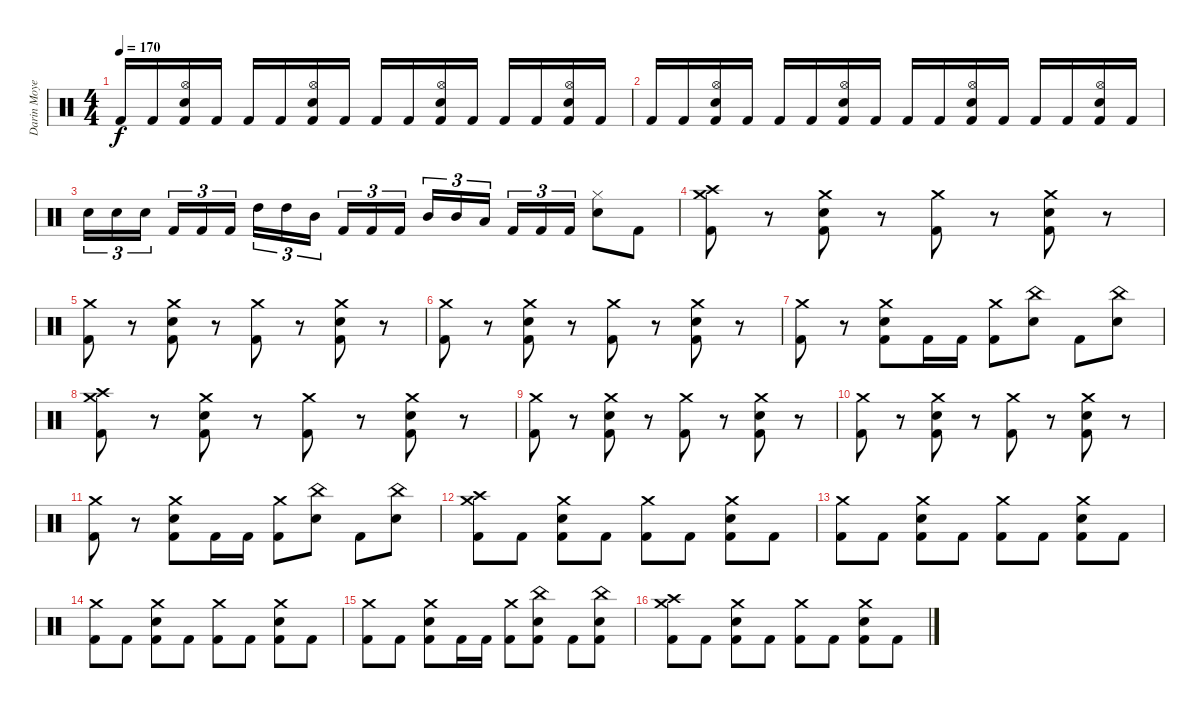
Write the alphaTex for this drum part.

\track ("Darin Moyen" "Darin Moye") {instrument percussion}
\staff {score}
\articulation defaults
\ts (4 4)
\tempo 170
\clef neutral
\ks c "Kick (hit) 2".16{dy f} "Kick (hit) 2".16
("Hi-Hat (open)" "Electric Snare (hit)" "Kick (hit) 2").16 "Kick (hit) 2".16 "Kick (hit) 2".16 "Kick (hit) 2".16 ("Hi-Hat (open)" "Electric Snare (hit)" "Kick (hit) 2").16 "Kick (hit) 2".16 "Kick (hit) 2".16 "Kick (hit) 2".16 ("Hi-Hat (open)" "Electric Snare (hit)" "Kick (hit) 2").16 "Kick (hit) 2".16 "Kick (hit) 2".16 "Kick (hit) 2".16 ("Hi-Hat (open)" "Electric Snare (hit)" "Kick (hit) 2").16 "Kick (hit) 2".16 |
"Kick (hit) 2".16 "Kick (hit) 2".16 ("Hi-Hat (open)" "Electric Snare (hit)" "Kick (hit) 2").16 "Kick (hit) 2".16 "Kick (hit) 2".16 "Kick (hit) 2".16 ("Hi-Hat (open)" "Electric Snare (hit)" "Kick (hit) 2").16 "Kick (hit) 2".16 "Kick (hit) 2".16 "Kick (hit) 2".16 ("Hi-Hat (open)" "Electric Snare (hit)" "Kick (hit) 2").16 "Kick (hit) 2".16 "Kick (hit) 2".16 "Kick (hit) 2".16 ("Hi-Hat (open)" "Electric Snare (hit)" "Kick (hit) 2").16 "Kick (hit) 2".16 |
"Electric Snare (hit)".16{tu (3 2)} "Electric Snare (hit)".16{tu (3 2)} "Electric Snare (hit)".16{tu (3 2) beam splitsecondary} "Kick (hit) 2".16{tu (3 2)} "Kick (hit) 2".16{tu (3 2)} "Kick (hit) 2".16{tu (3 2)} "High Tom (hit)".16{tu (3 2)} "High Tom (hit)".16{tu (3 2)} "Mid Tom (hit)".16{tu (3 2) beam splitsecondary} "Kick (hit) 2".16{tu (3 2)} "Kick (hit) 2".16{tu (3 2)} "Kick (hit) 2".16{tu (3 2)} "Mid Tom (hit)".16{tu (3 2)} "Mid Tom (hit)".16{tu (3 2)} "Low Tom (hit)".16{tu (3 2) beam splitsecondary} "Kick (hit) 2".16{tu (3 2)} "Kick (hit) 2".16{tu (3 2)} "Kick (hit) 2".16{tu (3 2)} ("Hi-Hat (closed)" "Electric Snare (hit)").8 "Kick (hit) 2".8 |
("Crash high (hit)" "Crash medium (hit)" "Kick (hit) 2").8 r.8 ("Crash medium (hit)" "Electric Snare (hit)" "Kick (hit) 2").8 r.8 ("Crash medium (hit)" "Kick (hit) 2").8 r.8 ("Crash medium (hit)" "Electric Snare (hit)" "Kick (hit) 2").8 r.8 |
("Crash medium (hit)" "Kick (hit) 2").8 r.8 ("Crash medium (hit)" "Electric Snare (hit)" "Kick (hit) 2").8 r.8 ("Crash medium (hit)" "Kick (hit) 2").8 r.8 ("Crash medium (hit)" "Electric Snare (hit)" "Kick (hit) 2").8 r.8 |
("Crash medium (hit)" "Kick (hit) 2").8 r.8 ("Crash medium (hit)" "Electric Snare (hit)" "Kick (hit) 2").8 r.8 ("Crash medium (hit)" "Kick (hit) 2").8 r.8 ("Crash medium (hit)" "Electric Snare (hit)" "Kick (hit) 2").8 r.8 |
("Crash medium (hit)" "Kick (hit) 2").8 r.8 ("Crash medium (hit)" "Electric Snare (hit)" "Kick (hit) 2").8 "Kick (hit) 2".16 "Kick (hit) 2".16 ("Crash medium (hit)" "Kick (hit) 2").8 ("China (hit)" "Electric Snare (hit)").8 "Kick (hit) 2".8 ("China (hit)" "Electric Snare (hit)").8 |
("Crash high (hit)" "Crash medium (hit)" "Kick (hit) 2").8 r.8 ("Crash medium (hit)" "Electric Snare (hit)" "Kick (hit) 2").8 r.8 ("Crash medium (hit)" "Kick (hit) 2").8 r.8 ("Crash medium (hit)" "Electric Snare (hit)" "Kick (hit) 2").8 r.8 |
("Crash medium (hit)" "Kick (hit) 2").8 r.8 ("Crash medium (hit)" "Electric Snare (hit)" "Kick (hit) 2").8 r.8 ("Crash medium (hit)" "Kick (hit) 2").8 r.8 ("Crash medium (hit)" "Electric Snare (hit)" "Kick (hit) 2").8 r.8 |
("Crash medium (hit)" "Kick (hit) 2").8 r.8 ("Crash medium (hit)" "Electric Snare (hit)" "Kick (hit) 2").8 r.8 ("Crash medium (hit)" "Kick (hit) 2").8 r.8 ("Crash medium (hit)" "Electric Snare (hit)" "Kick (hit) 2").8 r.8 |
("Crash medium (hit)" "Kick (hit) 2").8 r.8 ("Crash medium (hit)" "Electric Snare (hit)" "Kick (hit) 2").8 "Kick (hit) 2".16 "Kick (hit) 2".16 ("Crash medium (hit)" "Kick (hit) 2").8 ("China (hit)" "Electric Snare (hit)").8 "Kick (hit) 2".8 ("China (hit)" "Electric Snare (hit)").8 |
("Crash high (hit)" "Crash medium (hit)" "Kick (hit) 2").8 "Kick (hit) 2".8 ("Crash medium (hit)" "Electric Snare (hit)" "Kick (hit) 2").8 "Kick (hit) 2".8 ("Crash medium (hit)" "Kick (hit) 2").8 "Kick (hit) 2".8 ("Crash medium (hit)" "Electric Snare (hit)" "Kick (hit) 2").8 "Kick (hit) 2".8 |
("Crash medium (hit)" "Kick (hit) 2").8 "Kick (hit) 2".8 ("Crash medium (hit)" "Electric Snare (hit)" "Kick (hit) 2").8 "Kick (hit) 2".8 ("Crash medium (hit)" "Kick (hit) 2").8 "Kick (hit) 2".8 ("Crash medium (hit)" "Electric Snare (hit)" "Kick (hit) 2").8 "Kick (hit) 2".8 |
("Crash medium (hit)" "Kick (hit) 2").8 "Kick (hit) 2".8 ("Crash medium (hit)" "Electric Snare (hit)" "Kick (hit) 2").8 "Kick (hit) 2".8 ("Crash medium (hit)" "Kick (hit) 2").8 "Kick (hit) 2".8 ("Crash medium (hit)" "Electric Snare (hit)" "Kick (hit) 2").8 "Kick (hit) 2".8 |
("Crash medium (hit)" "Kick (hit) 2").8 "Kick (hit) 2".8 ("Crash medium (hit)" "Electric Snare (hit)" "Kick (hit) 2").8 "Kick (hit) 2".16 "Kick (hit) 2".16 ("Crash medium (hit)" "Kick (hit) 2").8 ("China (hit)" "Electric Snare (hit)" "Kick (hit) 2").8 "Kick (hit) 2".8 ("China (hit)" "Electric Snare (hit)" "Kick (hit) 2").8 |
("Crash high (hit)" "Crash medium (hit)" "Kick (hit) 2").8 "Kick (hit) 2".8 ("Crash medium (hit)" "Electric Snare (hit)" "Kick (hit) 2").8 "Kick (hit) 2".8 ("Crash medium (hit)" "Kick (hit) 2").8 "Kick (hit) 2".8 ("Crash medium (hit)" "Electric Snare (hit)" "Kick (hit) 2").8 "Kick (hit) 2".8
